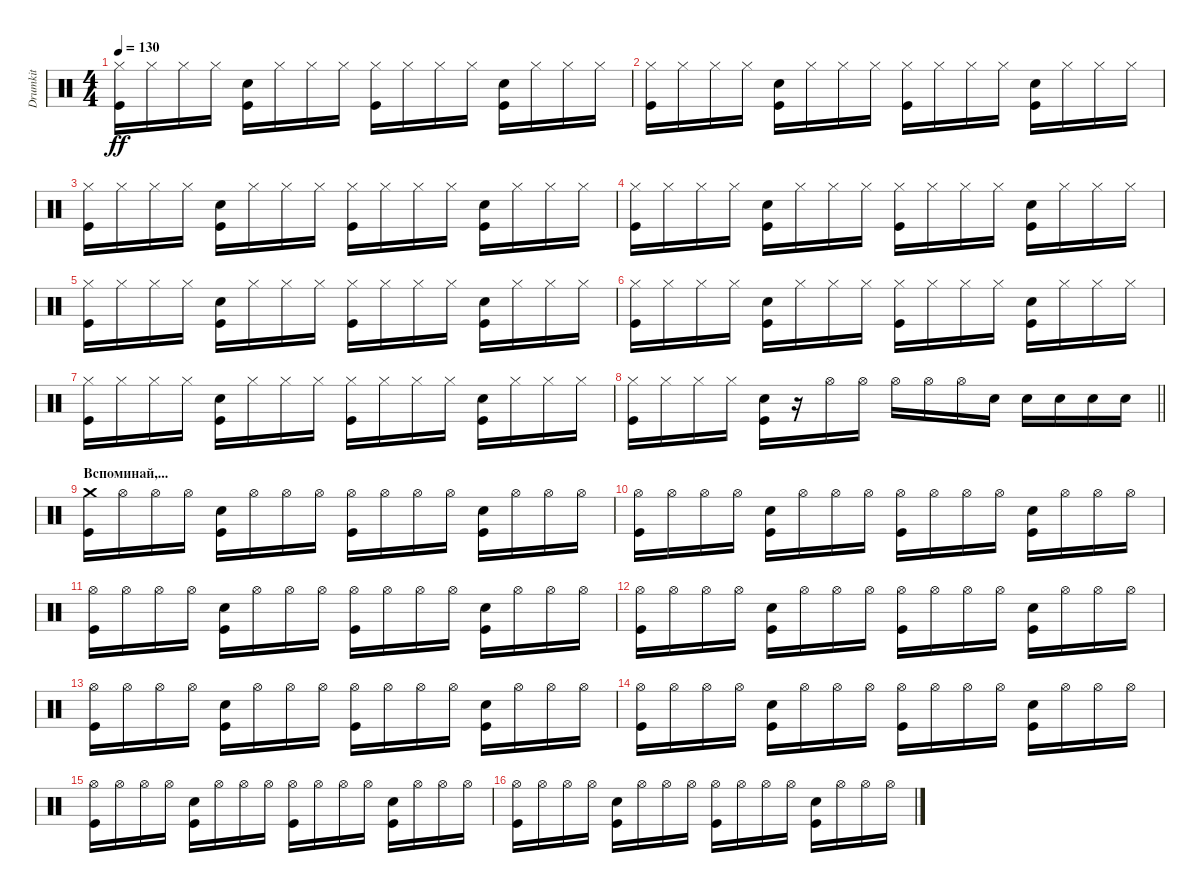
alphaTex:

\track ("Drumkit" "Drumkit") {instrument percussion}
\staff {score}
\articulation defaults
\ts (4 4)
\tempo 130
\clef neutral
\ks c
("Hi-Hat (closed)" "Kick (hit)").16{dy ff} "Hi-Hat (closed)".16 "Hi-Hat (closed)".16 "Hi-Hat (closed)".16 ("Snare (hit) 2" "Kick (hit)").16 "Hi-Hat (closed)".16 "Hi-Hat (closed)".16 "Hi-Hat (closed)".16 ("Hi-Hat (closed)" "Kick (hit)").16 "Hi-Hat (closed)".16 "Hi-Hat (closed)".16 "Hi-Hat (closed)".16 ("Snare (hit) 2" "Kick (hit)").16 "Hi-Hat (closed)".16 "Hi-Hat (closed)".16 "Hi-Hat (closed)".16 |
("Hi-Hat (closed)" "Kick (hit)").16 "Hi-Hat (closed)".16 "Hi-Hat (closed)".16 "Hi-Hat (closed)".16 ("Snare (hit) 2" "Kick (hit)").16 "Hi-Hat (closed)".16 "Hi-Hat (closed)".16 "Hi-Hat (closed)".16 ("Hi-Hat (closed)" "Kick (hit)").16 "Hi-Hat (closed)".16 "Hi-Hat (closed)".16 "Hi-Hat (closed)".16 ("Snare (hit) 2" "Kick (hit)").16 "Hi-Hat (closed)".16 "Hi-Hat (closed)".16 "Hi-Hat (closed)".16 |
("Hi-Hat (closed)" "Kick (hit)").16 "Hi-Hat (closed)".16 "Hi-Hat (closed)".16 "Hi-Hat (closed)".16 ("Snare (hit) 2" "Kick (hit)").16 "Hi-Hat (closed)".16 "Hi-Hat (closed)".16 "Hi-Hat (closed)".16 ("Hi-Hat (closed)" "Kick (hit)").16 "Hi-Hat (closed)".16 "Hi-Hat (closed)".16 "Hi-Hat (closed)".16 ("Snare (hit) 2" "Kick (hit)").16 "Hi-Hat (closed)".16 "Hi-Hat (closed)".16 "Hi-Hat (closed)".16 |
("Hi-Hat (closed)" "Kick (hit)").16 "Hi-Hat (closed)".16 "Hi-Hat (closed)".16 "Hi-Hat (closed)".16 ("Snare (hit) 2" "Kick (hit)").16 "Hi-Hat (closed)".16 "Hi-Hat (closed)".16 "Hi-Hat (closed)".16 ("Hi-Hat (closed)" "Kick (hit)").16 "Hi-Hat (closed)".16 "Hi-Hat (closed)".16 "Hi-Hat (closed)".16 ("Snare (hit) 2" "Kick (hit)").16 "Hi-Hat (closed)".16 "Hi-Hat (closed)".16 "Hi-Hat (closed)".16 |
("Hi-Hat (closed)" "Kick (hit)").16 "Hi-Hat (closed)".16 "Hi-Hat (closed)".16 "Hi-Hat (closed)".16 ("Snare (hit) 2" "Kick (hit)").16 "Hi-Hat (closed)".16 "Hi-Hat (closed)".16 "Hi-Hat (closed)".16 ("Hi-Hat (closed)" "Kick (hit)").16 "Hi-Hat (closed)".16 "Hi-Hat (closed)".16 "Hi-Hat (closed)".16 ("Snare (hit) 2" "Kick (hit)").16 "Hi-Hat (closed)".16 "Hi-Hat (closed)".16 "Hi-Hat (closed)".16 |
("Hi-Hat (closed)" "Kick (hit)").16 "Hi-Hat (closed)".16 "Hi-Hat (closed)".16 "Hi-Hat (closed)".16 ("Snare (hit) 2" "Kick (hit)").16 "Hi-Hat (closed)".16 "Hi-Hat (closed)".16 "Hi-Hat (closed)".16 ("Hi-Hat (closed)" "Kick (hit)").16 "Hi-Hat (closed)".16 "Hi-Hat (closed)".16 "Hi-Hat (closed)".16 ("Snare (hit) 2" "Kick (hit)").16 "Hi-Hat (closed)".16 "Hi-Hat (closed)".16 "Hi-Hat (closed)".16 |
("Hi-Hat (closed)" "Kick (hit)").16 "Hi-Hat (closed)".16 "Hi-Hat (closed)".16 "Hi-Hat (closed)".16 ("Snare (hit) 2" "Kick (hit)").16 "Hi-Hat (closed)".16 "Hi-Hat (closed)".16 "Hi-Hat (closed)".16 ("Hi-Hat (closed)" "Kick (hit)").16 "Hi-Hat (closed)".16 "Hi-Hat (closed)".16 "Hi-Hat (closed)".16 ("Snare (hit) 2" "Kick (hit)").16 "Hi-Hat (closed)".16 "Hi-Hat (closed)".16 "Hi-Hat (closed)".16 |
\barLineRight lightlight
("Hi-Hat (closed)" "Kick (hit)").16 "Hi-Hat (closed)".16 "Hi-Hat (closed)".16 "Hi-Hat (closed)".16 ("Snare (hit) 2" "Kick (hit)").16 r.16 "Hi-Hat (open)".16 "Hi-Hat (open)".16 "Hi-Hat (open)".16 "Hi-Hat (open)".16 "Hi-Hat (open)".16 "Snare (hit) 2".16 "Snare (hit) 2".16 "Snare (hit) 2".16 "Snare (hit) 2".16 "Snare (hit) 2".16 |
\section ("" "Вспоминай,...")
("Kick (hit)" "Crash medium (hit)").16 "Hi-Hat (open)".16 "Hi-Hat (open)".16 "Hi-Hat (open)".16 ("Snare (hit) 2" "Kick (hit)").16 "Hi-Hat (open)".16 "Hi-Hat (open)".16 "Hi-Hat (open)".16 ("Hi-Hat (open)" "Kick (hit)").16 "Hi-Hat (open)".16 "Hi-Hat (open)".16 "Hi-Hat (open)".16 ("Snare (hit) 2" "Kick (hit)").16 "Hi-Hat (open)".16 "Hi-Hat (open)".16 "Hi-Hat (open)".16 |
("Hi-Hat (open)" "Kick (hit)").16 "Hi-Hat (open)".16 "Hi-Hat (open)".16 "Hi-Hat (open)".16 ("Snare (hit) 2" "Kick (hit)").16 "Hi-Hat (open)".16 "Hi-Hat (open)".16 "Hi-Hat (open)".16 ("Hi-Hat (open)" "Kick (hit)").16 "Hi-Hat (open)".16 "Hi-Hat (open)".16 "Hi-Hat (open)".16 ("Snare (hit) 2" "Kick (hit)").16 "Hi-Hat (open)".16 "Hi-Hat (open)".16 "Hi-Hat (open)".16 |
("Hi-Hat (open)" "Kick (hit)").16 "Hi-Hat (open)".16 "Hi-Hat (open)".16 "Hi-Hat (open)".16 ("Snare (hit) 2" "Kick (hit)").16 "Hi-Hat (open)".16 "Hi-Hat (open)".16 "Hi-Hat (open)".16 ("Hi-Hat (open)" "Kick (hit)").16 "Hi-Hat (open)".16 "Hi-Hat (open)".16 "Hi-Hat (open)".16 ("Snare (hit) 2" "Kick (hit)").16 "Hi-Hat (open)".16 "Hi-Hat (open)".16 "Hi-Hat (open)".16 |
("Hi-Hat (open)" "Kick (hit)").16 "Hi-Hat (open)".16 "Hi-Hat (open)".16 "Hi-Hat (open)".16 ("Snare (hit) 2" "Kick (hit)").16 "Hi-Hat (open)".16 "Hi-Hat (open)".16 "Hi-Hat (open)".16 ("Hi-Hat (open)" "Kick (hit)").16 "Hi-Hat (open)".16 "Hi-Hat (open)".16 "Hi-Hat (open)".16 ("Snare (hit) 2" "Kick (hit)").16 "Hi-Hat (open)".16 "Hi-Hat (open)".16 "Hi-Hat (open)".16 |
("Hi-Hat (open)" "Kick (hit)").16 "Hi-Hat (open)".16 "Hi-Hat (open)".16 "Hi-Hat (open)".16 ("Snare (hit) 2" "Kick (hit)").16 "Hi-Hat (open)".16 "Hi-Hat (open)".16 "Hi-Hat (open)".16 ("Hi-Hat (open)" "Kick (hit)").16 "Hi-Hat (open)".16 "Hi-Hat (open)".16 "Hi-Hat (open)".16 ("Snare (hit) 2" "Kick (hit)").16 "Hi-Hat (open)".16 "Hi-Hat (open)".16 "Hi-Hat (open)".16 |
("Hi-Hat (open)" "Kick (hit)").16 "Hi-Hat (open)".16 "Hi-Hat (open)".16 "Hi-Hat (open)".16 ("Snare (hit) 2" "Kick (hit)").16 "Hi-Hat (open)".16 "Hi-Hat (open)".16 "Hi-Hat (open)".16 ("Hi-Hat (open)" "Kick (hit)").16 "Hi-Hat (open)".16 "Hi-Hat (open)".16 "Hi-Hat (open)".16 ("Snare (hit) 2" "Kick (hit)").16 "Hi-Hat (open)".16 "Hi-Hat (open)".16 "Hi-Hat (open)".16 |
("Hi-Hat (open)" "Kick (hit)").16 "Hi-Hat (open)".16 "Hi-Hat (open)".16 "Hi-Hat (open)".16 ("Snare (hit) 2" "Kick (hit)").16 "Hi-Hat (open)".16 "Hi-Hat (open)".16 "Hi-Hat (open)".16 ("Hi-Hat (open)" "Kick (hit)").16 "Hi-Hat (open)".16 "Hi-Hat (open)".16 "Hi-Hat (open)".16 ("Snare (hit) 2" "Kick (hit)").16 "Hi-Hat (open)".16 "Hi-Hat (open)".16 "Hi-Hat (open)".16 |
("Hi-Hat (open)" "Kick (hit)").16 "Hi-Hat (open)".16 "Hi-Hat (open)".16 "Hi-Hat (open)".16 ("Snare (hit) 2" "Kick (hit)").16 "Hi-Hat (open)".16 "Hi-Hat (open)".16 "Hi-Hat (open)".16 ("Hi-Hat (open)" "Kick (hit)").16 "Hi-Hat (open)".16 "Hi-Hat (open)".16 "Hi-Hat (open)".16 ("Snare (hit) 2" "Kick (hit)").16 "Hi-Hat (open)".16 "Hi-Hat (open)".16 "Hi-Hat (open)".16
